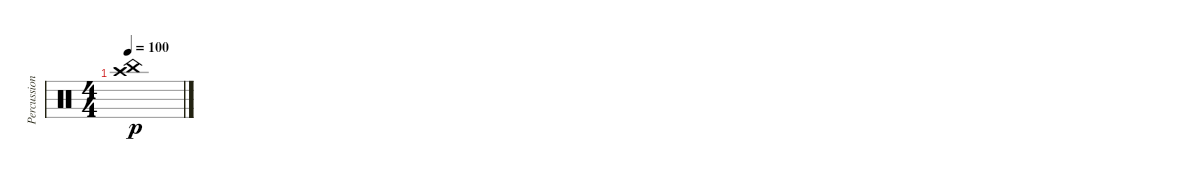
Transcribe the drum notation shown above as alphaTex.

\track ("Percussion" "Percussion") {instrument percussion}
\staff {score}
\articulation defaults
\ts (4 4)
\tempo 100
\clef neutral
\ks c
("China (hit)" "Crash high (hit)").1{dy p}
